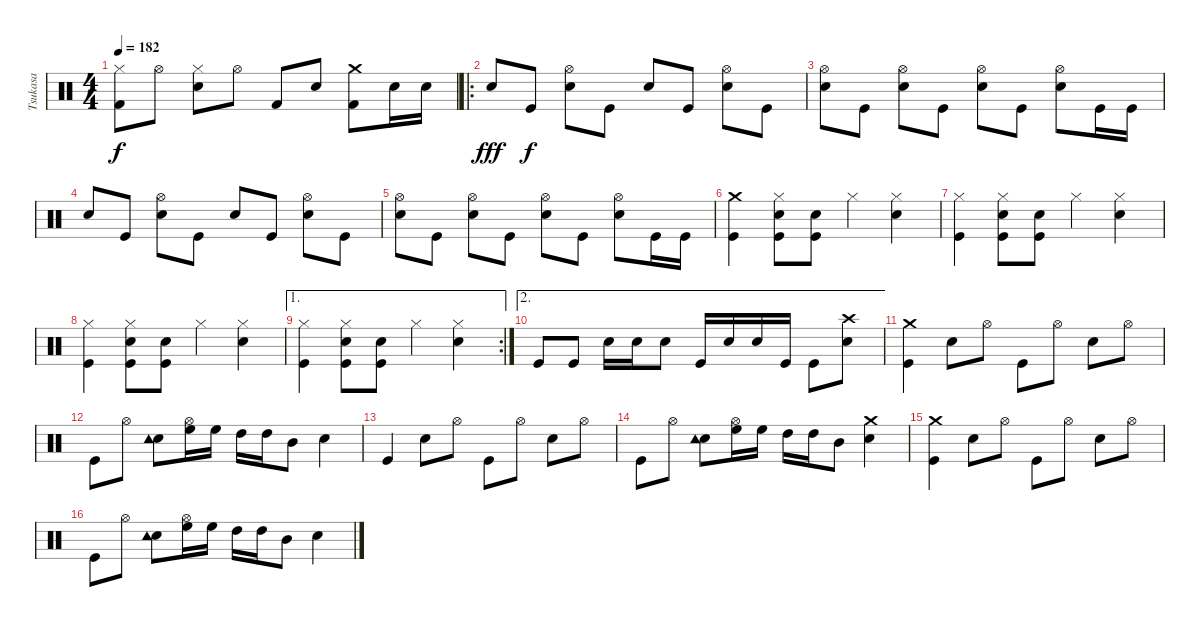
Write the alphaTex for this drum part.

\track ("Tsukasa" "Tsukasa") {instrument percussion}
\staff {score}
\articulation defaults
\ts (4 4)
\tempo 182
\clef neutral
\ks c
("Kick (hit) 2" "Hi-Hat (closed)").8{dy f} "Hi-Hat (open)".8 ("Electric Snare (hit)" "Hi-Hat (closed)").8 "Hi-Hat (open)".8 "Kick (hit) 2".8 "Electric Snare (hit)".8 ("Kick (hit) 2" "Crash medium (hit)").8 "Electric Snare (hit)".16 "Electric Snare (hit)".16 |
\ro "Electric Snare (hit)".8{dy fff} "Kick (hit)".8{dy f}
("Electric Snare (hit)" "Hi-Hat (open)").8 "Kick (hit)".8 "Electric Snare (hit)".8 "Kick (hit)".8 ("Electric Snare (hit)" "Hi-Hat (open)").8 "Kick (hit)".8 |
("Electric Snare (hit)" "Hi-Hat (open)").8 "Kick (hit)".8 ("Electric Snare (hit)" "Hi-Hat (open)").8 "Kick (hit)".8 ("Electric Snare (hit)" "Hi-Hat (open)").8 "Kick (hit)".8 ("Electric Snare (hit)" "Hi-Hat (open)").8 "Kick (hit)".16 "Kick (hit)".16 |
"Electric Snare (hit)".8 "Kick (hit)".8 ("Electric Snare (hit)" "Hi-Hat (open)").8 "Kick (hit)".8 "Electric Snare (hit)".8 "Kick (hit)".8 ("Electric Snare (hit)" "Hi-Hat (open)").8 "Kick (hit)".8 |
("Electric Snare (hit)" "Hi-Hat (open)").8 "Kick (hit)".8 ("Electric Snare (hit)" "Hi-Hat (open)").8 "Kick (hit)".8 ("Electric Snare (hit)" "Hi-Hat (open)").8 "Kick (hit)".8 ("Electric Snare (hit)" "Hi-Hat (open)").8 "Kick (hit)".16 "Kick (hit)".16 |
("Kick (hit)" "Crash medium (hit)").4 ("Electric Snare (hit)" "Hi-Hat (closed)" "Kick (hit)").8 ("Electric Snare (hit)" "Kick (hit)").8 "Hi-Hat (closed)".4 ("Electric Snare (hit)" "Hi-Hat (closed)").4 |
("Kick (hit)" "Hi-Hat (closed)").4 ("Electric Snare (hit)" "Hi-Hat (closed)" "Kick (hit)").8 ("Electric Snare (hit)" "Kick (hit)").8 "Hi-Hat (closed)".4 ("Electric Snare (hit)" "Hi-Hat (closed)").4 |
("Kick (hit)" "Hi-Hat (closed)").4 ("Electric Snare (hit)" "Hi-Hat (closed)" "Kick (hit)").8 ("Electric Snare (hit)" "Kick (hit)").8 "Hi-Hat (closed)".4 ("Electric Snare (hit)" "Hi-Hat (closed)").4 |
\ae 1
\rc 2
("Kick (hit)" "Hi-Hat (closed)").4 ("Electric Snare (hit)" "Hi-Hat (closed)" "Kick (hit)").8 ("Electric Snare (hit)" "Kick (hit)").8 "Hi-Hat (closed)".4 ("Electric Snare (hit)" "Hi-Hat (closed)").4 |
\ae 2 "Kick (hit)".8 "Kick (hit)".8 "Electric Snare (hit)".16 "Electric Snare (hit)".16 "Electric Snare (hit)".8 "Kick (hit)".16 "Electric Snare (hit)".16 "Electric Snare (hit)".16 "Kick (hit)".16 "Kick (hit)".8
("Crash high (hit)" "Electric Snare (hit)").8 |
("Kick (hit)" "Crash medium (hit)").4 "Electric Snare (hit)".8 "Hi-Hat (open)".8 "Kick (hit)".8 "Hi-Hat (open)".8 "Electric Snare (hit)".8 "Hi-Hat (open)".8 |
"Kick (hit)".8 "Hi-Hat (open)".8 ("Electric Snare (hit)" "Tambourine (hit)").8 ("High Floor Tom (hit)" "Hi-Hat (open)").16 "High Floor Tom (hit)".16 "High Tom (hit)".16 "High Tom (hit)".16 "Mid Tom (hit)".8 "Electric Snare (hit)".4 |
"Kick (hit)".4 "Electric Snare (hit)".8 "Hi-Hat (open)".8 "Kick (hit)".8 "Hi-Hat (open)".8 "Electric Snare (hit)".8 "Hi-Hat (open)".8 |
"Kick (hit)".8 "Hi-Hat (open)".8 ("Electric Snare (hit)" "Tambourine (hit)").8 ("High Floor Tom (hit)" "Hi-Hat (open)").16 "High Floor Tom (hit)".16 "High Tom (hit)".16 "High Tom (hit)".16 "Mid Tom (hit)".8 ("Electric Snare (hit)" "Crash medium (hit)").4 |
("Kick (hit)" "Crash medium (hit)").4 "Electric Snare (hit)".8 "Hi-Hat (open)".8 "Kick (hit)".8 "Hi-Hat (open)".8 "Electric Snare (hit)".8 "Hi-Hat (open)".8 |
"Kick (hit)".8 "Hi-Hat (open)".8 ("Electric Snare (hit)" "Tambourine (hit)").8 ("High Floor Tom (hit)" "Hi-Hat (open)").16 "High Floor Tom (hit)".16 "High Tom (hit)".16 "High Tom (hit)".16 "Mid Tom (hit)".8 "Electric Snare (hit)".4
